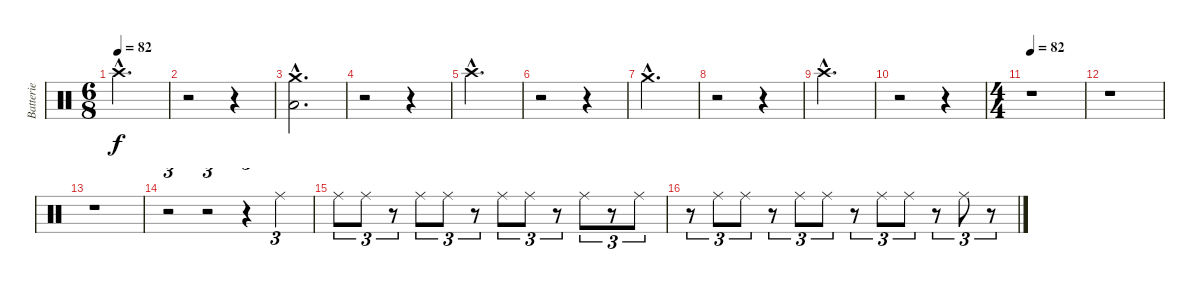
\track ("Batterie" "Batterie") {instrument percussion}
\staff {score}
\articulation defaults
\ts (6 8)
\tempo 82
\clef neutral
\ks c "Crash high (hit)"{hac}.2{d dy f}
|
r.2 r.4 |
("Crash medium (hit)"{hac} "Low Tom (hit)"{hac}).2{d} |
r.2 r.4 |
"Crash high (hit)"{hac}.2{d} |
r.2 r.4 |
"Crash medium (hit)"{hac}.2{d} |
r.2 r.4 |
"Crash high (hit)"{hac}.2{d} |
r.2 r.4 |
\ts (4 4)
\tempo 82
r.1 |
r.1 |
r.1 |
r.2{tu (3 2) volume 14} r.2{tu (3 2)} r.4{tu (3 2)} "Ride (middle)".4{tu (3 2)} |
"Ride (middle)".8{tu (3 2)} "Ride (middle)".8{tu (3 2)} r.8{tu (3 2)} "Ride (middle)".8{tu (3 2)} "Ride (middle)".8{tu (3 2)} r.8{tu (3 2)} "Ride (middle)".8{tu (3 2)} "Ride (middle)".8{tu (3 2)} r.8{tu (3 2)} "Ride (middle)".8{tu (3 2)} r.8{tu (3 2)} "Ride (middle)".8{tu (3 2)} |
r.8{tu (3 2)} "Ride (middle)".8{tu (3 2)} "Ride (middle)".8{tu (3 2)} r.8{tu (3 2)} "Ride (middle)".8{tu (3 2)} "Ride (middle)".8{tu (3 2)} r.8{tu (3 2)} "Ride (middle)".8{tu (3 2)} "Ride (middle)".8{tu (3 2)} r.8{tu (3 2)} "Ride (middle)".8{tu (3 2)} r.8{tu (3 2)}
